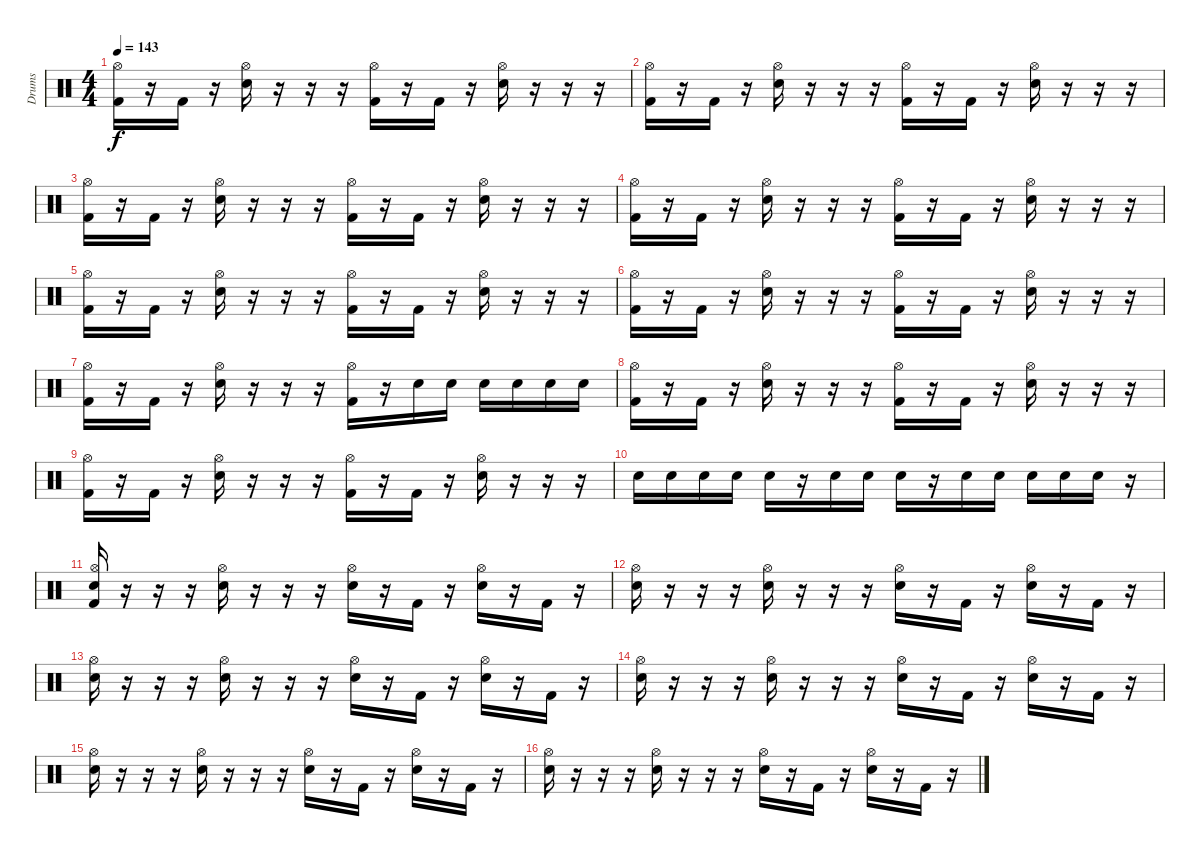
\track ("Drums" "Drums") {instrument percussion}
\staff {score}
\articulation defaults
\ts (4 4)
\tempo 143
\clef neutral
\ks c
("Kick (hit) 2" "Hi-Hat (open)").16{dy f} r.16 "Kick (hit) 2".16 r.16 ("Electric Snare (hit)" "Hi-Hat (open)").16 r.16 r.16 r.16 ("Kick (hit) 2" "Hi-Hat (open)").16 r.16 "Kick (hit) 2".16 r.16 ("Electric Snare (hit)" "Hi-Hat (open)").16 r.16 r.16 r.16 |
("Kick (hit) 2" "Hi-Hat (open)").16 r.16 "Kick (hit) 2".16 r.16 ("Electric Snare (hit)" "Hi-Hat (open)").16 r.16 r.16 r.16 ("Kick (hit) 2" "Hi-Hat (open)").16 r.16 "Kick (hit) 2".16 r.16 ("Electric Snare (hit)" "Hi-Hat (open)").16 r.16 r.16 r.16 |
("Kick (hit) 2" "Hi-Hat (open)").16 r.16 "Kick (hit) 2".16 r.16 ("Electric Snare (hit)" "Hi-Hat (open)").16 r.16 r.16 r.16 ("Kick (hit) 2" "Hi-Hat (open)").16 r.16 "Kick (hit) 2".16 r.16 ("Electric Snare (hit)" "Hi-Hat (open)").16 r.16 r.16 r.16 |
("Kick (hit) 2" "Hi-Hat (open)").16 r.16 "Kick (hit) 2".16 r.16 ("Electric Snare (hit)" "Hi-Hat (open)").16 r.16 r.16 r.16 ("Kick (hit) 2" "Hi-Hat (open)").16 r.16 "Kick (hit) 2".16 r.16 ("Electric Snare (hit)" "Hi-Hat (open)").16 r.16 r.16 r.16 |
("Kick (hit) 2" "Hi-Hat (open)").16 r.16 "Kick (hit) 2".16 r.16 ("Electric Snare (hit)" "Hi-Hat (open)").16 r.16 r.16 r.16 ("Kick (hit) 2" "Hi-Hat (open)").16 r.16 "Kick (hit) 2".16 r.16 ("Electric Snare (hit)" "Hi-Hat (open)").16 r.16 r.16 r.16 |
("Kick (hit) 2" "Hi-Hat (open)").16 r.16 "Kick (hit) 2".16 r.16 ("Electric Snare (hit)" "Hi-Hat (open)").16 r.16 r.16 r.16 ("Kick (hit) 2" "Hi-Hat (open)").16 r.16 "Kick (hit) 2".16 r.16 ("Electric Snare (hit)" "Hi-Hat (open)").16 r.16 r.16 r.16 |
("Kick (hit) 2" "Hi-Hat (open)").16 r.16 "Kick (hit) 2".16 r.16 ("Electric Snare (hit)" "Hi-Hat (open)").16 r.16 r.16 r.16 ("Kick (hit) 2" "Hi-Hat (open)").16 r.16 "Electric Snare (hit)".16 "Electric Snare (hit)".16 "Electric Snare (hit)".16 "Electric Snare (hit)".16 "Electric Snare (hit)".16 "Electric Snare (hit)".16 |
("Kick (hit) 2" "Hi-Hat (open)").16 r.16 "Kick (hit) 2".16 r.16 ("Electric Snare (hit)" "Hi-Hat (open)").16 r.16 r.16 r.16 ("Kick (hit) 2" "Hi-Hat (open)").16 r.16 "Kick (hit) 2".16 r.16 ("Electric Snare (hit)" "Hi-Hat (open)").16 r.16 r.16 r.16 |
("Kick (hit) 2" "Hi-Hat (open)").16 r.16 "Kick (hit) 2".16 r.16 ("Electric Snare (hit)" "Hi-Hat (open)").16 r.16 r.16 r.16 ("Kick (hit) 2" "Hi-Hat (open)").16 r.16 "Kick (hit) 2".16 r.16 ("Electric Snare (hit)" "Hi-Hat (open)").16 r.16 r.16 r.16 |
"Electric Snare (hit)".16 "Electric Snare (hit)".16 "Electric Snare (hit)".16 "Electric Snare (hit)".16 "Electric Snare (hit)".16 r.16 "Electric Snare (hit)".16 "Electric Snare (hit)".16 "Electric Snare (hit)".16 r.16 "Electric Snare (hit)".16 "Electric Snare (hit)".16 "Electric Snare (hit)".16 "Electric Snare (hit)".16 "Electric Snare (hit)".16 r.16 |
("Kick (hit) 2" "Electric Snare (hit)" "Hi-Hat (open)").16 r.16 r.16 r.16 ("Electric Snare (hit)" "Hi-Hat (open)").16 r.16 r.16 r.16 ("Electric Snare (hit)" "Hi-Hat (open)").16 r.16 "Kick (hit) 2".16 r.16 ("Electric Snare (hit)" "Hi-Hat (open)").16 r.16 "Kick (hit) 2".16 r.16 |
("Electric Snare (hit)" "Hi-Hat (open)").16 r.16 r.16 r.16 ("Electric Snare (hit)" "Hi-Hat (open)").16 r.16 r.16 r.16 ("Electric Snare (hit)" "Hi-Hat (open)").16 r.16 "Kick (hit) 2".16 r.16 ("Electric Snare (hit)" "Hi-Hat (open)").16 r.16 "Kick (hit) 2".16 r.16 |
("Electric Snare (hit)" "Hi-Hat (open)").16 r.16 r.16 r.16 ("Electric Snare (hit)" "Hi-Hat (open)").16 r.16 r.16 r.16 ("Electric Snare (hit)" "Hi-Hat (open)").16 r.16 "Kick (hit) 2".16 r.16 ("Electric Snare (hit)" "Hi-Hat (open)").16 r.16 "Kick (hit) 2".16 r.16 |
("Electric Snare (hit)" "Hi-Hat (open)").16 r.16 r.16 r.16 ("Electric Snare (hit)" "Hi-Hat (open)").16 r.16 r.16 r.16 ("Electric Snare (hit)" "Hi-Hat (open)").16 r.16 "Kick (hit) 2".16 r.16 ("Electric Snare (hit)" "Hi-Hat (open)").16 r.16 "Kick (hit) 2".16 r.16 |
("Electric Snare (hit)" "Hi-Hat (open)").16 r.16 r.16 r.16 ("Electric Snare (hit)" "Hi-Hat (open)").16 r.16 r.16 r.16 ("Electric Snare (hit)" "Hi-Hat (open)").16 r.16 "Kick (hit) 2".16 r.16 ("Electric Snare (hit)" "Hi-Hat (open)").16 r.16 "Kick (hit) 2".16 r.16 |
("Electric Snare (hit)" "Hi-Hat (open)").16 r.16 r.16 r.16 ("Electric Snare (hit)" "Hi-Hat (open)").16 r.16 r.16 r.16 ("Electric Snare (hit)" "Hi-Hat (open)").16 r.16 "Kick (hit) 2".16 r.16 ("Electric Snare (hit)" "Hi-Hat (open)").16 r.16 "Kick (hit) 2".16 r.16
